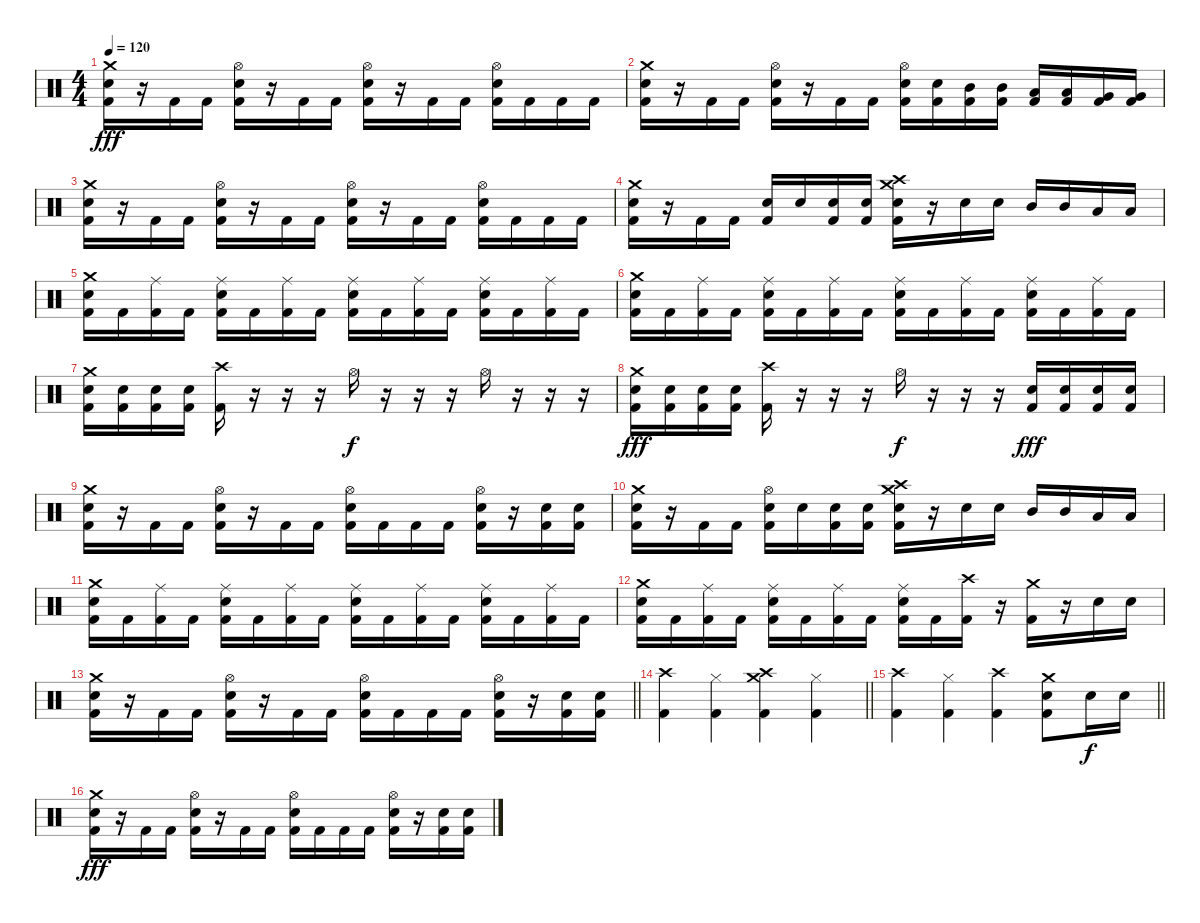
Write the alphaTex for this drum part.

\track "" {instrument percussion}
\staff {score}
\articulation defaults
\ts (4 4)
\tempo 120
\clef neutral
\ks c
("Crash medium (hit)" "Snare (hit) 2" "Kick (hit) 2").16{dy fff} r.16 "Kick (hit) 2".16 "Kick (hit) 2".16 ("Hi-Hat (open)" "Snare (hit) 2" "Kick (hit) 2").16 r.16 "Kick (hit) 2".16 "Kick (hit) 2".16 ("Hi-Hat (open)" "Snare (hit) 2" "Kick (hit) 2").16 r.16 "Kick (hit) 2".16 "Kick (hit) 2".16 ("Hi-Hat (open)" "Snare (hit) 2" "Kick (hit) 2").16 "Kick (hit) 2".16 "Kick (hit) 2".16 "Kick (hit) 2".16 |
("Crash medium (hit)" "Snare (hit) 2" "Kick (hit) 2").16 r.16 "Kick (hit) 2".16 "Kick (hit) 2".16 ("Hi-Hat (open)" "Snare (hit) 2" "Kick (hit) 2").16 r.16 "Kick (hit) 2".16 "Kick (hit) 2".16 ("Hi-Hat (open)" "Snare (hit) 2" "Kick (hit) 2").16 ("Snare (hit) 2" "Kick (hit) 2").16 ("Mid Tom (hit)" "Kick (hit) 2").16 ("Mid Tom (hit)" "Kick (hit) 2").16 ("Low Tom (hit)" "Kick (hit) 2").16 ("Low Tom (hit)" "Kick (hit) 2").16 ("Very Low Tom (hit)" "Kick (hit) 2").16 ("Very Low Tom (hit)" "Kick (hit) 2").16 |
("Crash medium (hit)" "Snare (hit) 2" "Kick (hit) 2").16 r.16 "Kick (hit) 2".16 "Kick (hit) 2".16 ("Hi-Hat (open)" "Snare (hit) 2" "Kick (hit) 2").16 r.16 "Kick (hit) 2".16 "Kick (hit) 2".16 ("Hi-Hat (open)" "Snare (hit) 2" "Kick (hit) 2").16 r.16 "Kick (hit) 2".16 "Kick (hit) 2".16 ("Hi-Hat (open)" "Snare (hit) 2" "Kick (hit) 2").16 "Kick (hit) 2".16 "Kick (hit) 2".16 "Kick (hit) 2".16 |
("Crash medium (hit)" "Snare (hit) 2" "Kick (hit) 2").16 r.16 "Kick (hit) 2".16 "Kick (hit) 2".16 ("Snare (hit) 2" "Kick (hit) 2").16 "Snare (hit) 2".16 ("Snare (hit) 2" "Kick (hit) 2").16 ("Snare (hit) 2" "Kick (hit) 2").16 ("Crash medium (hit)" "Crash high (hit)" "Snare (hit) 2" "Kick (hit) 2").16 r.16 "Snare (hit) 2".16 "Snare (hit) 2".16 "Mid Tom (hit)".16 "Mid Tom (hit)".16 "Low Tom (hit)".16 "Low Tom (hit)".16 |
("Crash medium (hit)" "Snare (hit) 2" "Kick (hit) 2").16 "Kick (hit) 2".16 ("Ride (middle)" "Kick (hit) 2").16 "Kick (hit) 2".16 ("Ride (middle)" "Snare (hit) 2" "Kick (hit) 2").16 "Kick (hit) 2".16 ("Ride (middle)" "Kick (hit) 2").16 "Kick (hit) 2".16 ("Ride (middle)" "Snare (hit) 2" "Kick (hit) 2").16 "Kick (hit) 2".16 ("Ride (middle)" "Kick (hit) 2").16 "Kick (hit) 2".16 ("Ride (middle)" "Snare (hit) 2" "Kick (hit) 2").16 "Kick (hit) 2".16 ("Ride (middle)" "Kick (hit) 2").16 "Kick (hit) 2".16 |
("Crash medium (hit)" "Snare (hit) 2" "Kick (hit) 2").16 "Kick (hit) 2".16 ("Ride (middle)" "Kick (hit) 2").16 "Kick (hit) 2".16 ("Ride (middle)" "Snare (hit) 2" "Kick (hit) 2").16 "Kick (hit) 2".16 ("Ride (middle)" "Kick (hit) 2").16 "Kick (hit) 2".16 ("Ride (middle)" "Snare (hit) 2" "Kick (hit) 2").16 "Kick (hit) 2".16 ("Ride (middle)" "Kick (hit) 2").16 "Kick (hit) 2".16 ("Ride (middle)" "Snare (hit) 2" "Kick (hit) 2").16 "Kick (hit) 2".16 ("Ride (middle)" "Kick (hit) 2").16 "Kick (hit) 2".16 |
("Crash medium (hit)" "Snare (hit) 2" "Kick (hit) 2").16 ("Snare (hit) 2" "Kick (hit) 2").16 ("Snare (hit) 2" "Kick (hit) 2").16 ("Snare (hit) 2" "Kick (hit) 2").16 ("Crash high (hit)" "Kick (hit) 2").16 r.16 r.16 r.16 "Hi-Hat (open)".16{dy f} r.16 r.16 r.16 "Hi-Hat (open)".16 r.16 r.16 r.16 |
("Crash medium (hit)" "Snare (hit) 2" "Kick (hit) 2").16{dy fff} ("Snare (hit) 2" "Kick (hit) 2").16 ("Snare (hit) 2" "Kick (hit) 2").16 ("Snare (hit) 2" "Kick (hit) 2").16 ("Crash high (hit)" "Kick (hit) 2").16 r.16 r.16 r.16 "Hi-Hat (open)".16{dy f} r.16 r.16 r.16 ("Snare (hit) 2" "Kick (hit) 2").16{dy fff} ("Snare (hit) 2" "Kick (hit) 2").16 ("Snare (hit) 2" "Kick (hit) 2").16 ("Snare (hit) 2" "Kick (hit) 2").16 |
("Crash medium (hit)" "Snare (hit) 2" "Kick (hit) 2").16 r.16 "Kick (hit) 2".16 "Kick (hit) 2".16 ("Hi-Hat (open)" "Snare (hit) 2" "Kick (hit) 2").16 r.16 "Kick (hit) 2".16 "Kick (hit) 2".16 ("Hi-Hat (open)" "Snare (hit) 2" "Kick (hit) 2").16 "Kick (hit) 2".16 "Kick (hit) 2".16{txt ""} "Kick (hit) 2".16 ("Hi-Hat (open)" "Snare (hit) 2" "Kick (hit) 2").16 r.16 ("Snare (hit) 2" "Kick (hit) 2").16 ("Snare (hit) 2" "Kick (hit) 2").16 |
("Crash medium (hit)" "Snare (hit) 2" "Kick (hit) 2").16 r.16 "Kick (hit) 2".16 "Kick (hit) 2".16 ("Hi-Hat (open)" "Snare (hit) 2" "Kick (hit) 2").16 "Snare (hit) 2".16 ("Snare (hit) 2" "Kick (hit) 2").16 ("Snare (hit) 2" "Kick (hit) 2").16 ("Crash medium (hit)" "Crash high (hit)" "Snare (hit) 2" "Kick (hit) 2").16 r.16 "Snare (hit) 2".16 "Snare (hit) 2".16 "Mid Tom (hit)".16 "Mid Tom (hit)".16 "Low Tom (hit)".16 "Low Tom (hit)".16 |
("Crash medium (hit)" "Snare (hit) 2" "Kick (hit) 2").16 "Kick (hit) 2".16 ("Ride (middle)" "Kick (hit) 2").16 "Kick (hit) 2".16 ("Ride (middle)" "Snare (hit) 2" "Kick (hit) 2").16 "Kick (hit) 2".16 ("Ride (middle)" "Kick (hit) 2").16 "Kick (hit) 2".16 ("Ride (middle)" "Snare (hit) 2" "Kick (hit) 2").16 "Kick (hit) 2".16 ("Ride (middle)" "Kick (hit) 2").16 "Kick (hit) 2".16 ("Ride (middle)" "Snare (hit) 2" "Kick (hit) 2").16 "Kick (hit) 2".16 ("Ride (middle)" "Kick (hit) 2").16 "Kick (hit) 2".16 |
("Crash medium (hit)" "Snare (hit) 2" "Kick (hit) 2").16 "Kick (hit) 2".16 ("Ride (middle)" "Kick (hit) 2").16 "Kick (hit) 2".16 ("Ride (middle)" "Snare (hit) 2" "Kick (hit) 2").16 "Kick (hit) 2".16 ("Ride (middle)" "Kick (hit) 2").16 "Kick (hit) 2".16 ("Ride (middle)" "Snare (hit) 2" "Kick (hit) 2").16 "Kick (hit) 2".16 ("Crash high (hit)" "Kick (hit) 2").16 r.16 ("Crash medium (hit)" "Kick (hit) 2").16 r.16 "Snare (hit) 2".16 "Snare (hit) 2".16 |
\barLineRight lightlight
("Crash medium (hit)" "Snare (hit) 2" "Kick (hit) 2").16 r.16 "Kick (hit) 2".16 "Kick (hit) 2".16 ("Hi-Hat (open)" "Snare (hit) 2" "Kick (hit) 2").16 r.16 "Kick (hit) 2".16 "Kick (hit) 2".16 ("Hi-Hat (open)" "Snare (hit) 2" "Kick (hit) 2").16 "Kick (hit) 2".16 "Kick (hit) 2".16 "Kick (hit) 2".16 ("Hi-Hat (open)" "Snare (hit) 2" "Kick (hit) 2").16 r.16 ("Snare (hit) 2" "Kick (hit) 2").16 ("Snare (hit) 2" "Kick (hit) 2").16 |
\barLineRight lightlight
("Crash high (hit)" "Kick (hit) 2").4 ("Hi-Hat (closed)" "Kick (hit) 2").4 ("Crash high (hit)" "Crash medium (hit)" "Kick (hit) 2").4 ("Hi-Hat (closed)" "Kick (hit) 2").4 |
\barLineRight lightlight
("Crash high (hit)" "Kick (hit) 2").4 ("Hi-Hat (closed)" "Kick (hit) 2").4 ("Crash high (hit)" "Kick (hit) 2").4 ("Crash medium (hit)" "Snare (hit) 2" "Kick (hit) 2").8 "Snare (hit) 2".16{dy f} "Snare (hit) 2".16 |
("Crash medium (hit)" "Snare (hit) 2" "Kick (hit) 2").16{dy fff} r.16 "Kick (hit) 2".16 "Kick (hit) 2".16 ("Hi-Hat (open)" "Snare (hit) 2" "Kick (hit) 2").16 r.16 "Kick (hit) 2".16 "Kick (hit) 2".16 ("Hi-Hat (open)" "Snare (hit) 2" "Kick (hit) 2").16 "Kick (hit) 2".16 "Kick (hit) 2".16 "Kick (hit) 2".16 ("Hi-Hat (open)" "Snare (hit) 2" "Kick (hit) 2").16 r.16 ("Snare (hit) 2" "Kick (hit) 2").16 ("Snare (hit) 2" "Kick (hit) 2").16
